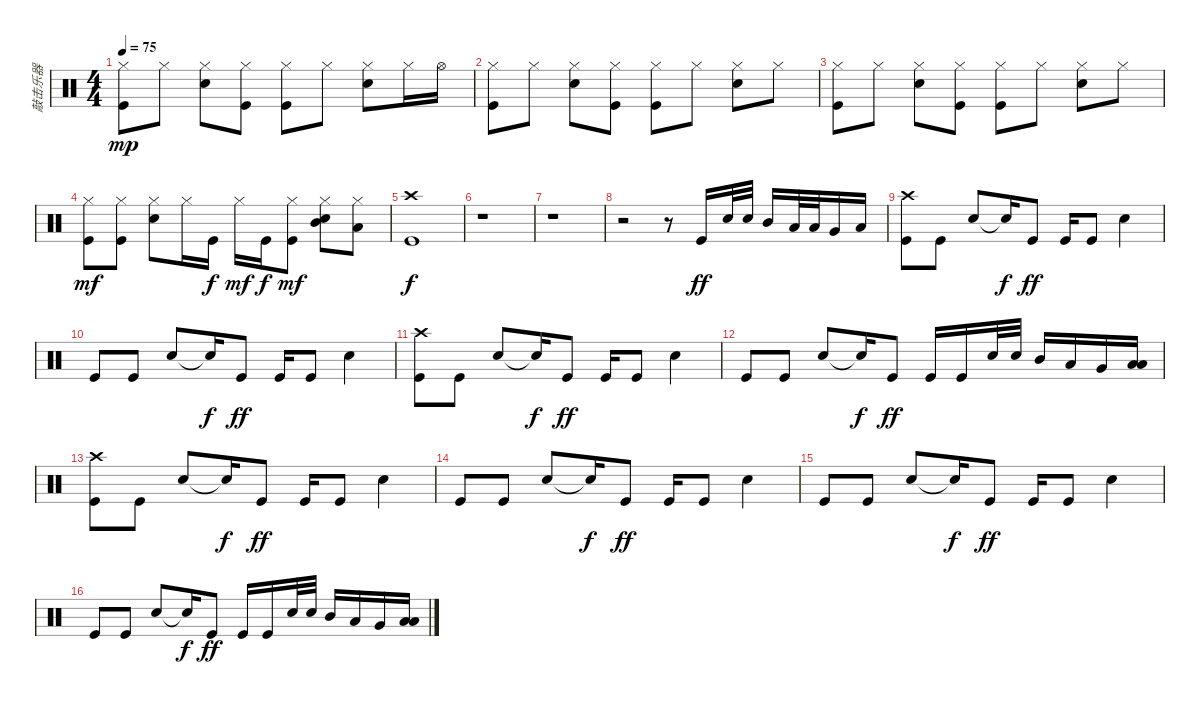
\track ("敲击乐器" "敲击乐器") {instrument percussion}
\staff {score}
\articulation defaults
\ts (4 4)
\tempo 75
\clef neutral
\ks c
("Kick (hit)" "Hi-Hat (closed)").8{dy mp} "Hi-Hat (closed)".8 ("Electric Snare (hit)" "Hi-Hat (closed)").8 ("Kick (hit)" "Hi-Hat (closed)").8 ("Kick (hit)" "Hi-Hat (closed)").8 "Hi-Hat (closed)".8 ("Electric Snare (hit)" "Hi-Hat (closed)").8 "Hi-Hat (closed)".16 "Hi-Hat (open)".16 |
("Kick (hit)" "Hi-Hat (closed)").8 "Hi-Hat (closed)".8 ("Electric Snare (hit)" "Hi-Hat (closed)").8 ("Kick (hit)" "Hi-Hat (closed)").8 ("Kick (hit)" "Hi-Hat (closed)").8 "Hi-Hat (closed)".8 ("Electric Snare (hit)" "Hi-Hat (closed)").8 "Hi-Hat (closed)".8 |
("Kick (hit)" "Hi-Hat (closed)").8 "Hi-Hat (closed)".8 ("Electric Snare (hit)" "Hi-Hat (closed)").8 ("Kick (hit)" "Hi-Hat (closed)").8 ("Kick (hit)" "Hi-Hat (closed)").8 "Hi-Hat (closed)".8 ("Electric Snare (hit)" "Hi-Hat (closed)").8 "Hi-Hat (closed)".8 |
("Kick (hit)" "Hi-Hat (closed)").8{dy mf} ("Kick (hit)" "Hi-Hat (closed)").8 ("Electric Snare (hit)" "Hi-Hat (closed)").8 "Hi-Hat (closed)".16 "Kick (hit)".16{dy f} "Hi-Hat (closed)".16{dy mf} "Kick (hit)".16{dy f} ("Kick (hit)" "Hi-Hat (closed)").8{dy mf} ("Mid Tom (hit)" "Electric Snare (hit)" "Hi-Hat (closed)").8 ("Low Tom (hit)" "Hi-Hat (closed)").8 |
("Kick (hit)" "Crash high (hit)").1{dy f} |
r.1 |
r.1 |
r.2 r.8 "Kick (hit)".16{dy ff} "Snare (hit) 2".32 "Snare (hit) 2".32 "Mid Tom (hit)".16 "Low Tom (hit)".32 "Low Tom (hit)".32 "Very Low Tom (hit)".16 "Low Floor Tom (hit)".16 |
("Kick (hit)" "Crash high (hit)").8 "Kick (hit)".8 "Electric Snare (hit)".8 "Snare (hit)"{t}.16{dy f} "Kick (hit)".8{dy ff} "Kick (hit)".16 "Kick (hit)".8 "Electric Snare (hit)".4 |
"Kick (hit)".8 "Kick (hit)".8 "Electric Snare (hit)".8 "Snare (hit)"{t}.16{dy f} "Kick (hit)".8{dy ff} "Kick (hit)".16 "Kick (hit)".8 "Electric Snare (hit)".4 |
("Kick (hit)" "Crash high (hit)").8 "Kick (hit)".8 "Electric Snare (hit)".8 "Snare (hit)"{t}.16{dy f} "Kick (hit)".8{dy ff} "Kick (hit)".16 "Kick (hit)".8 "Electric Snare (hit)".4 |
"Kick (hit)".8 "Kick (hit)".8 "Electric Snare (hit)".8 "Snare (hit)"{t}.16{dy f} "Kick (hit)".8{dy ff} "Kick (hit)".16 "Kick (hit)".16 "Electric Snare (hit)".32 "Electric Snare (hit)".32 "Mid Tom (hit)".16 "Low Tom (hit)".16 "Very Low Tom (hit)".16 ("Low Floor Tom (hit)" "Low Floor Tom (hit)").16 |
("Kick (hit)" "Crash high (hit)").8 "Kick (hit)".8 "Electric Snare (hit)".8 "Snare (hit)"{t}.16{dy f} "Kick (hit)".8{dy ff} "Kick (hit)".16 "Kick (hit)".8 "Electric Snare (hit)".4 |
"Kick (hit)".8 "Kick (hit)".8 "Electric Snare (hit)".8 "Snare (hit)"{t}.16{dy f} "Kick (hit)".8{dy ff} "Kick (hit)".16 "Kick (hit)".8 "Electric Snare (hit)".4 |
"Kick (hit)".8 "Kick (hit)".8 "Electric Snare (hit)".8 "Snare (hit)"{t}.16{dy f} "Kick (hit)".8{dy ff} "Kick (hit)".16 "Kick (hit)".8 "Electric Snare (hit)".4 |
"Kick (hit)".8 "Kick (hit)".8 "Electric Snare (hit)".8 "Snare (hit)"{t}.16{dy f} "Kick (hit)".8{dy ff} "Kick (hit)".16 "Kick (hit)".16 "Electric Snare (hit)".32 "Electric Snare (hit)".32 "Mid Tom (hit)".16 "Low Tom (hit)".16 "Very Low Tom (hit)".16 ("Low Floor Tom (hit)" "Low Floor Tom (hit)").16
